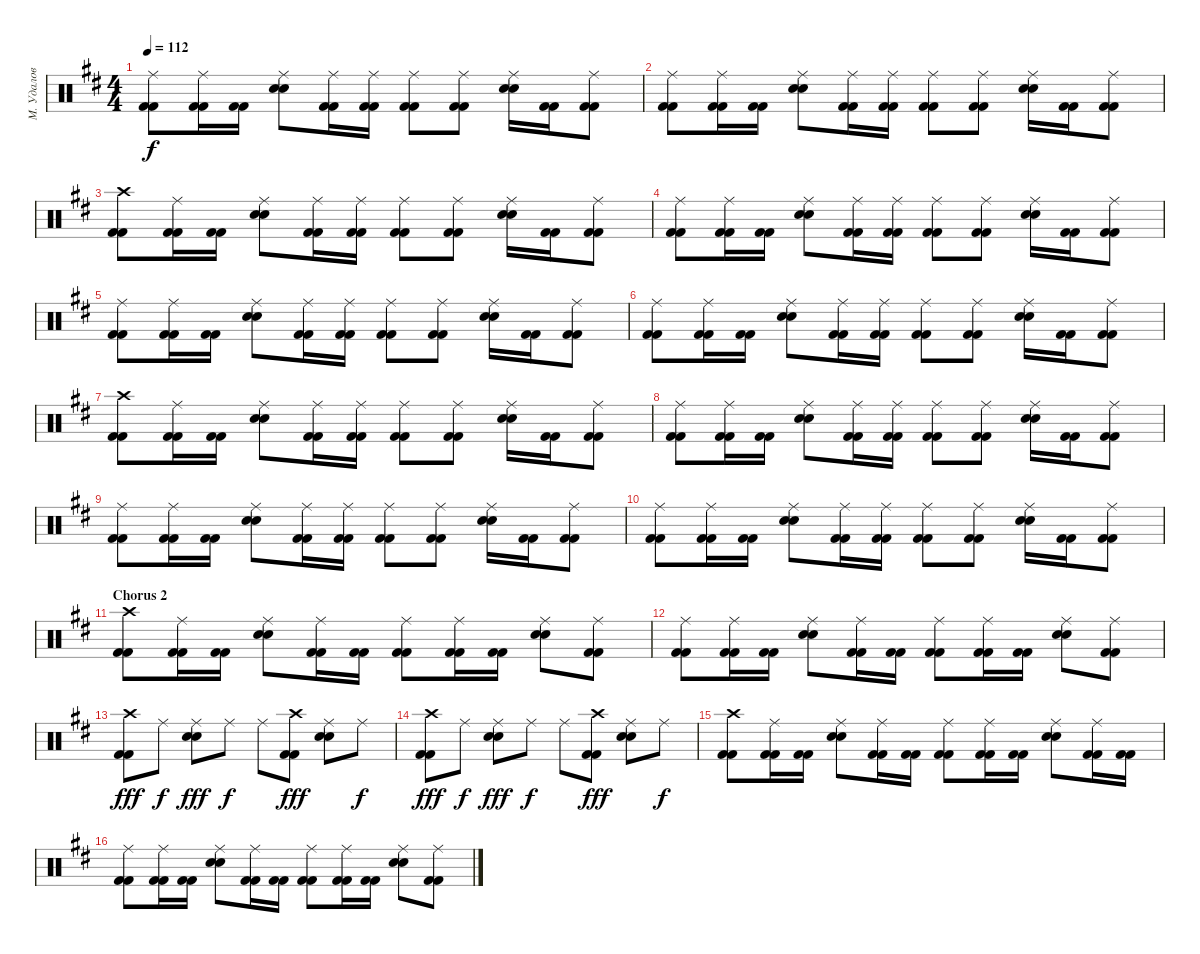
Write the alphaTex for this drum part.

\track ("М. Удалов" "М. Удалов") {instrument percussion}
\staff {score}
\articulation defaults
\ts (4 4)
\tempo 112
\clef neutral
\ks d
("Ride (middle)" "Kick (hit) 2" "Kick (hit) 2").8{dy f} ("Ride (middle)" "Kick (hit) 2" "Kick (hit) 2").16 ("Kick (hit) 2" "Kick (hit) 2").16 ("Ride (middle)" "Electric Snare (hit)" "Electric Snare (hit)").8 ("Ride (middle)" "Kick (hit) 2" "Kick (hit) 2").16 ("Ride (middle)" "Kick (hit) 2" "Kick (hit) 2").16 ("Ride (middle)" "Kick (hit) 2" "Kick (hit) 2").8 ("Ride (middle)" "Kick (hit) 2" "Kick (hit) 2").8 ("Ride (middle)" "Electric Snare (hit)" "Electric Snare (hit)").16 ("Kick (hit) 2" "Kick (hit) 2").16 ("Ride (middle)" "Kick (hit) 2" "Kick (hit) 2").8 |
("Ride (middle)" "Kick (hit) 2" "Kick (hit) 2").8 ("Ride (middle)" "Kick (hit) 2" "Kick (hit) 2").16 ("Kick (hit) 2" "Kick (hit) 2").16 ("Ride (middle)" "Electric Snare (hit)" "Electric Snare (hit)").8 ("Ride (middle)" "Kick (hit) 2" "Kick (hit) 2").16 ("Ride (middle)" "Kick (hit) 2" "Kick (hit) 2").16 ("Ride (middle)" "Kick (hit) 2" "Kick (hit) 2").8 ("Ride (middle)" "Kick (hit) 2" "Kick (hit) 2").8 ("Ride (middle)" "Electric Snare (hit)" "Electric Snare (hit)").16 ("Kick (hit) 2" "Kick (hit) 2").16 ("Ride (middle)" "Kick (hit) 2" "Kick (hit) 2").8 |
("Crash high (hit)" "Kick (hit) 2" "Kick (hit) 2").8 ("Ride (middle)" "Kick (hit) 2" "Kick (hit) 2").16 ("Kick (hit) 2" "Kick (hit) 2").16 ("Ride (middle)" "Electric Snare (hit)" "Electric Snare (hit)").8 ("Ride (middle)" "Kick (hit) 2" "Kick (hit) 2").16 ("Ride (middle)" "Kick (hit) 2" "Kick (hit) 2").16 ("Ride (middle)" "Kick (hit) 2" "Kick (hit) 2").8 ("Ride (middle)" "Kick (hit) 2" "Kick (hit) 2").8 ("Ride (middle)" "Electric Snare (hit)" "Electric Snare (hit)").16 ("Kick (hit) 2" "Kick (hit) 2").16 ("Ride (middle)" "Kick (hit) 2" "Kick (hit) 2").8 |
("Ride (middle)" "Kick (hit) 2" "Kick (hit) 2").8 ("Ride (middle)" "Kick (hit) 2" "Kick (hit) 2").16 ("Kick (hit) 2" "Kick (hit) 2").16 ("Ride (middle)" "Electric Snare (hit)" "Electric Snare (hit)").8 ("Ride (middle)" "Kick (hit) 2" "Kick (hit) 2").16 ("Ride (middle)" "Kick (hit) 2" "Kick (hit) 2").16 ("Ride (middle)" "Kick (hit) 2" "Kick (hit) 2").8 ("Ride (middle)" "Kick (hit) 2" "Kick (hit) 2").8 ("Ride (middle)" "Electric Snare (hit)" "Electric Snare (hit)").16 ("Kick (hit) 2" "Kick (hit) 2").16 ("Ride (middle)" "Kick (hit) 2" "Kick (hit) 2").8 |
("Ride (middle)" "Kick (hit) 2" "Kick (hit) 2").8 ("Ride (middle)" "Kick (hit) 2" "Kick (hit) 2").16 ("Kick (hit) 2" "Kick (hit) 2").16 ("Ride (middle)" "Electric Snare (hit)" "Electric Snare (hit)").8 ("Ride (middle)" "Kick (hit) 2" "Kick (hit) 2").16 ("Ride (middle)" "Kick (hit) 2" "Kick (hit) 2").16 ("Ride (middle)" "Kick (hit) 2" "Kick (hit) 2").8 ("Ride (middle)" "Kick (hit) 2" "Kick (hit) 2").8 ("Ride (middle)" "Electric Snare (hit)" "Electric Snare (hit)").16 ("Kick (hit) 2" "Kick (hit) 2").16 ("Ride (middle)" "Kick (hit) 2" "Kick (hit) 2").8 |
("Ride (middle)" "Kick (hit) 2" "Kick (hit) 2").8 ("Ride (middle)" "Kick (hit) 2" "Kick (hit) 2").16 ("Kick (hit) 2" "Kick (hit) 2").16 ("Ride (middle)" "Electric Snare (hit)" "Electric Snare (hit)").8 ("Ride (middle)" "Kick (hit) 2" "Kick (hit) 2").16 ("Ride (middle)" "Kick (hit) 2" "Kick (hit) 2").16 ("Ride (middle)" "Kick (hit) 2" "Kick (hit) 2").8 ("Ride (middle)" "Kick (hit) 2" "Kick (hit) 2").8 ("Ride (middle)" "Electric Snare (hit)" "Electric Snare (hit)").16 ("Kick (hit) 2" "Kick (hit) 2").16 ("Ride (middle)" "Kick (hit) 2" "Kick (hit) 2").8 |
("Crash high (hit)" "Kick (hit) 2" "Kick (hit) 2").8 ("Ride (middle)" "Kick (hit) 2" "Kick (hit) 2").16 ("Kick (hit) 2" "Kick (hit) 2").16 ("Ride (middle)" "Electric Snare (hit)" "Electric Snare (hit)").8 ("Ride (middle)" "Kick (hit) 2" "Kick (hit) 2").16 ("Ride (middle)" "Kick (hit) 2" "Kick (hit) 2").16 ("Ride (middle)" "Kick (hit) 2" "Kick (hit) 2").8 ("Ride (middle)" "Kick (hit) 2" "Kick (hit) 2").8 ("Ride (middle)" "Electric Snare (hit)" "Electric Snare (hit)").16 ("Kick (hit) 2" "Kick (hit) 2").16 ("Ride (middle)" "Kick (hit) 2" "Kick (hit) 2").8 |
("Ride (middle)" "Kick (hit) 2" "Kick (hit) 2").8 ("Ride (middle)" "Kick (hit) 2" "Kick (hit) 2").16 ("Kick (hit) 2" "Kick (hit) 2").16 ("Ride (middle)" "Electric Snare (hit)" "Electric Snare (hit)").8 ("Ride (middle)" "Kick (hit) 2" "Kick (hit) 2").16 ("Ride (middle)" "Kick (hit) 2" "Kick (hit) 2").16 ("Ride (middle)" "Kick (hit) 2" "Kick (hit) 2").8 ("Ride (middle)" "Kick (hit) 2" "Kick (hit) 2").8 ("Ride (middle)" "Electric Snare (hit)" "Electric Snare (hit)").16 ("Kick (hit) 2" "Kick (hit) 2").16 ("Ride (middle)" "Kick (hit) 2" "Kick (hit) 2").8 |
("Ride (middle)" "Kick (hit) 2" "Kick (hit) 2").8 ("Ride (middle)" "Kick (hit) 2" "Kick (hit) 2").16 ("Kick (hit) 2" "Kick (hit) 2").16 ("Ride (middle)" "Electric Snare (hit)" "Electric Snare (hit)").8 ("Ride (middle)" "Kick (hit) 2" "Kick (hit) 2").16 ("Ride (middle)" "Kick (hit) 2" "Kick (hit) 2").16 ("Ride (middle)" "Kick (hit) 2" "Kick (hit) 2").8 ("Ride (middle)" "Kick (hit) 2" "Kick (hit) 2").8 ("Ride (middle)" "Electric Snare (hit)" "Electric Snare (hit)").16 ("Kick (hit) 2" "Kick (hit) 2").16 ("Ride (middle)" "Kick (hit) 2" "Kick (hit) 2").8 |
("Ride (middle)" "Kick (hit) 2" "Kick (hit) 2").8 ("Ride (middle)" "Kick (hit) 2" "Kick (hit) 2").16 ("Kick (hit) 2" "Kick (hit) 2").16 ("Ride (middle)" "Electric Snare (hit)" "Electric Snare (hit)").8 ("Ride (middle)" "Kick (hit) 2" "Kick (hit) 2").16 ("Ride (middle)" "Kick (hit) 2" "Kick (hit) 2").16 ("Ride (middle)" "Kick (hit) 2" "Kick (hit) 2").8 ("Ride (middle)" "Kick (hit) 2" "Kick (hit) 2").8 ("Ride (middle)" "Electric Snare (hit)" "Electric Snare (hit)").16 ("Kick (hit) 2" "Kick (hit) 2").16 ("Ride (middle)" "Kick (hit) 2" "Kick (hit) 2").8 |
\section ("" "Chorus 2")
("Crash high (hit)" "Kick (hit) 2" "Kick (hit) 2").8 ("Ride (middle)" "Kick (hit) 2" "Kick (hit) 2").16 ("Kick (hit) 2" "Kick (hit) 2").16 ("Ride (middle)" "Electric Snare (hit)" "Electric Snare (hit)").8 ("Ride (middle)" "Kick (hit) 2" "Kick (hit) 2").16 ("Kick (hit) 2" "Kick (hit) 2").16 ("Ride (middle)" "Kick (hit) 2" "Kick (hit) 2").8 ("Ride (middle)" "Kick (hit) 2" "Kick (hit) 2").16 ("Kick (hit) 2" "Kick (hit) 2").16 ("Ride (middle)" "Electric Snare (hit)" "Electric Snare (hit)").8 ("Ride (middle)" "Kick (hit) 2" "Kick (hit) 2").8 |
("Ride (middle)" "Kick (hit) 2" "Kick (hit) 2").8 ("Ride (middle)" "Kick (hit) 2" "Kick (hit) 2").16 ("Kick (hit) 2" "Kick (hit) 2").16 ("Ride (middle)" "Electric Snare (hit)" "Electric Snare (hit)").8 ("Ride (middle)" "Kick (hit) 2" "Kick (hit) 2").16 ("Kick (hit) 2" "Kick (hit) 2").16 ("Ride (middle)" "Kick (hit) 2" "Kick (hit) 2").8 ("Ride (middle)" "Kick (hit) 2" "Kick (hit) 2").16 ("Kick (hit) 2" "Kick (hit) 2").16 ("Ride (middle)" "Electric Snare (hit)" "Electric Snare (hit)").8 ("Ride (middle)" "Kick (hit) 2" "Kick (hit) 2").8 |
("Crash high (hit)" "Kick (hit) 2" "Kick (hit) 2").8{dy fff} "Ride (middle)".8{dy f} ("Ride (middle)" "Electric Snare (hit)" "Electric Snare (hit)").8{dy fff} "Ride (middle)".8{dy f} "Ride (middle)".8 ("Crash high (hit)" "Kick (hit) 2" "Kick (hit) 2").8{dy fff} ("Ride (middle)" "Electric Snare (hit)" "Electric Snare (hit)").8 "Ride (middle)".8{dy f} |
("Crash high (hit)" "Kick (hit) 2" "Kick (hit) 2").8{dy fff} "Ride (middle)".8{dy f} ("Ride (middle)" "Electric Snare (hit)" "Electric Snare (hit)").8{dy fff} "Ride (middle)".8{dy f} "Ride (middle)".8 ("Crash high (hit)" "Kick (hit) 2" "Kick (hit) 2").8{dy fff} ("Ride (middle)" "Electric Snare (hit)" "Electric Snare (hit)").8 "Ride (middle)".8{dy f} |
("Crash high (hit)" "Kick (hit) 2" "Kick (hit) 2").8 ("Ride (middle)" "Kick (hit) 2" "Kick (hit) 2").16 ("Kick (hit) 2" "Kick (hit) 2").16 ("Ride (middle)" "Electric Snare (hit)" "Electric Snare (hit)").8 ("Ride (middle)" "Kick (hit) 2" "Kick (hit) 2").16 ("Kick (hit) 2" "Kick (hit) 2").16 ("Ride (middle)" "Kick (hit) 2" "Kick (hit) 2").8 ("Ride (middle)" "Kick (hit) 2" "Kick (hit) 2").16 ("Kick (hit) 2" "Kick (hit) 2").16 ("Ride (middle)" "Electric Snare (hit)" "Electric Snare (hit)").8 ("Ride (middle)" "Kick (hit) 2" "Kick (hit) 2").16 ("Kick (hit) 2" "Kick (hit) 2").16 |
("Ride (middle)" "Kick (hit) 2" "Kick (hit) 2").8 ("Ride (middle)" "Kick (hit) 2" "Kick (hit) 2").16 ("Kick (hit) 2" "Kick (hit) 2").16 ("Ride (middle)" "Electric Snare (hit)" "Electric Snare (hit)").8 ("Ride (middle)" "Kick (hit) 2" "Kick (hit) 2").16 ("Kick (hit) 2" "Kick (hit) 2").16 ("Ride (middle)" "Kick (hit) 2" "Kick (hit) 2").8 ("Ride (middle)" "Kick (hit) 2" "Kick (hit) 2").16 ("Kick (hit) 2" "Kick (hit) 2").16 ("Ride (middle)" "Electric Snare (hit)" "Electric Snare (hit)").8 ("Ride (middle)" "Kick (hit) 2" "Kick (hit) 2").8
